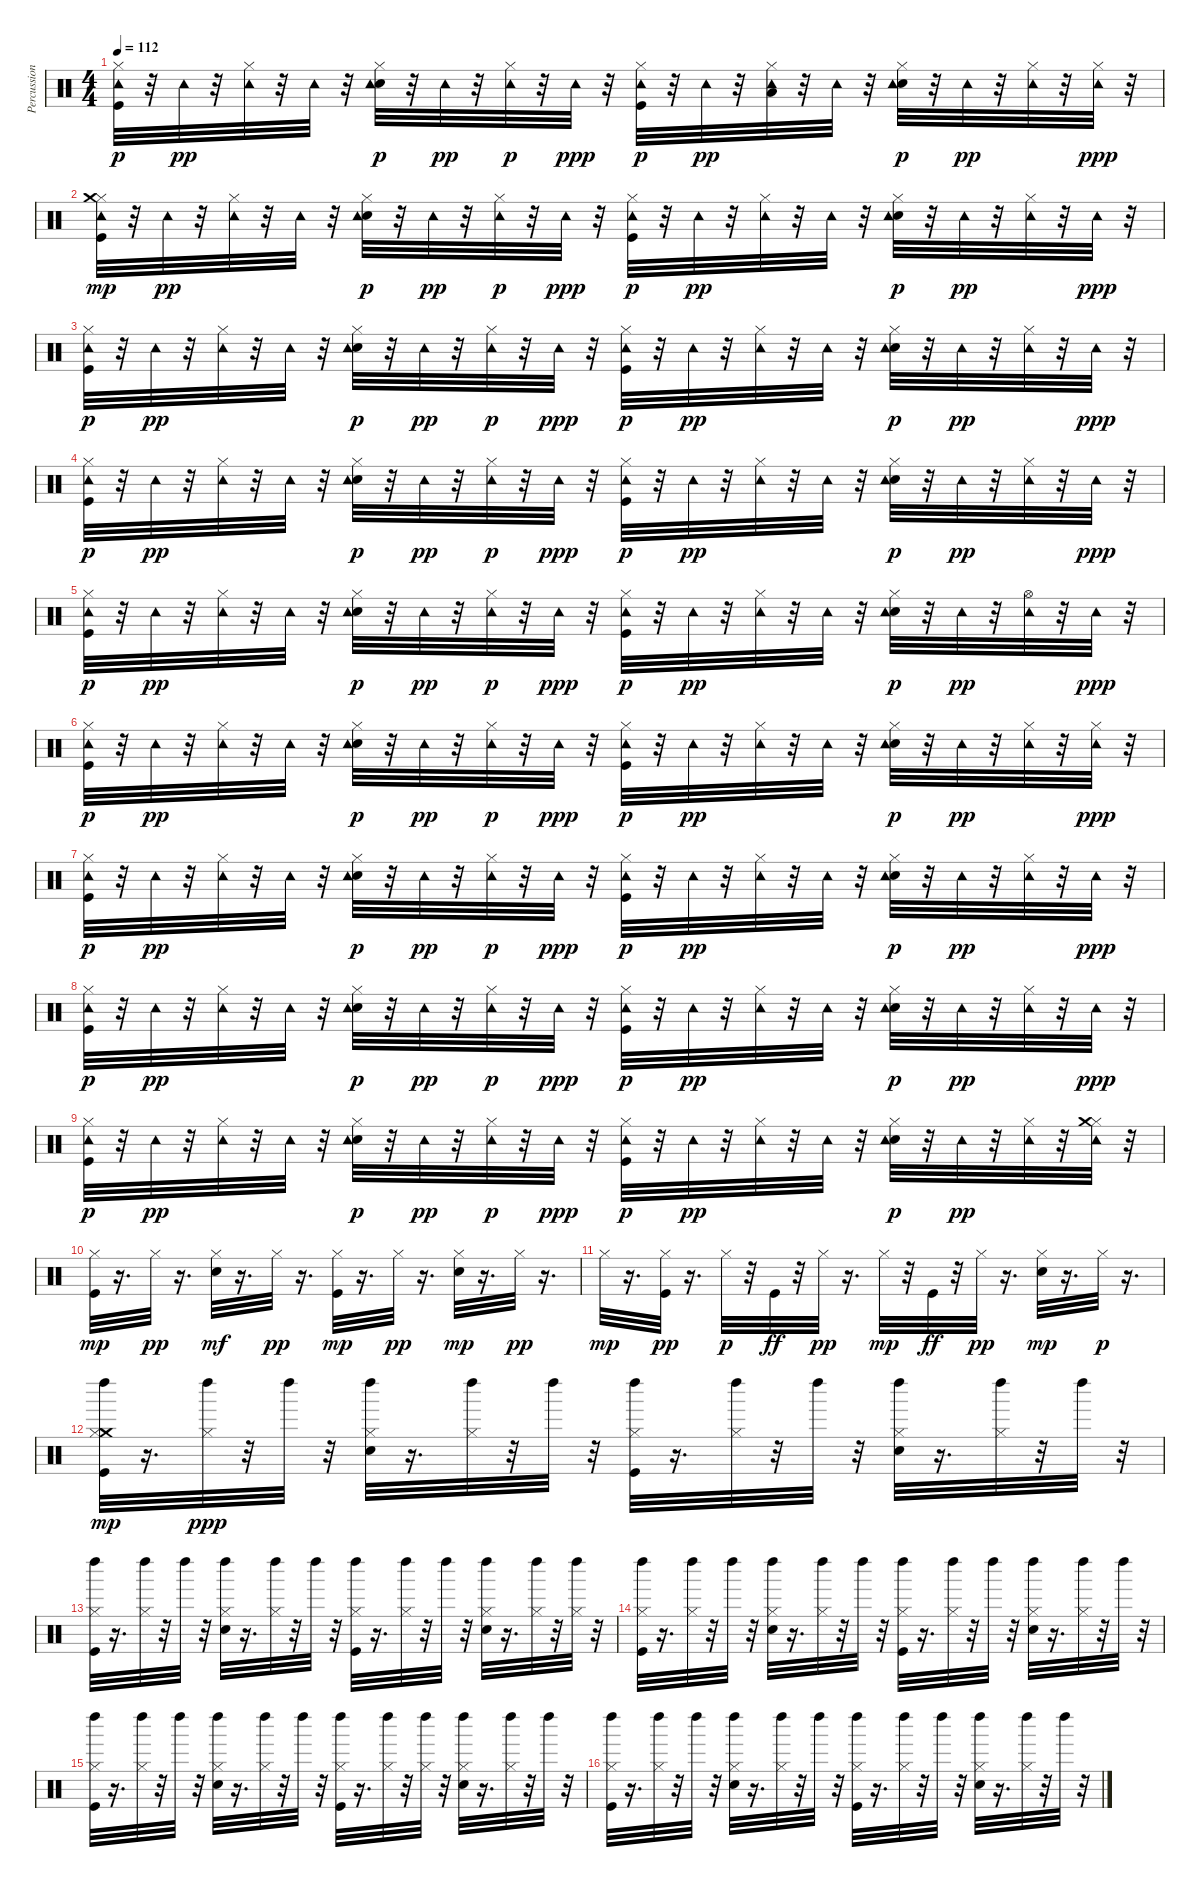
\track ("Percussioni" "Percussion") {instrument percussion}
\staff {score}
\articulation defaults
\ts (4 4)
\tempo 112
\clef neutral
\ks c
("Kick (hit)" "Hi-Hat (closed)" "Tambourine (hit)").32{dy p} r.32 "Tambourine (hit)".32{dy pp} r.32 ("Hi-Hat (closed)" "Tambourine (hit)").32 r.32 "Tambourine (hit)".32 r.32 ("Electric Snare (hit)" "Hi-Hat (closed)" "Tambourine (hit)").32{dy p} r.32 "Tambourine (hit)".32{dy pp} r.32 ("Hi-Hat (closed)" "Tambourine (hit)").32{dy p} r.32 "Tambourine (hit)".32{dy ppp} r.32 ("Kick (hit)" "Hi-Hat (closed)" "Tambourine (hit)").32{dy p} r.32 "Tambourine (hit)".32{dy pp} r.32 ("Hi-Hat (closed)" "Low Tom (hit)" "Tambourine (hit)").32 r.32 "Tambourine (hit)".32 r.32 ("Electric Snare (hit)" "Hi-Hat (closed)" "Tambourine (hit)").32{dy p} r.32 "Tambourine (hit)".32{dy pp} r.32 ("Hi-Hat (closed)" "Tambourine (hit)").32 r.32 ("Hi-Hat (closed)" "Tambourine (hit)").32{dy ppp} r.32 |
("Kick (hit)" "Hi-Hat (closed)" "Tambourine (hit)" "Crash medium (hit)").32{dy mp} r.32 "Tambourine (hit)".32{dy pp} r.32 ("Hi-Hat (closed)" "Tambourine (hit)").32 r.32 "Tambourine (hit)".32 r.32 ("Electric Snare (hit)" "Hi-Hat (closed)" "Tambourine (hit)").32{dy p} r.32 "Tambourine (hit)".32{dy pp} r.32 ("Hi-Hat (closed)" "Tambourine (hit)").32{dy p} r.32 "Tambourine (hit)".32{dy ppp} r.32 ("Kick (hit)" "Hi-Hat (closed)" "Tambourine (hit)").32{dy p} r.32 "Tambourine (hit)".32{dy pp} r.32 ("Hi-Hat (closed)" "Tambourine (hit)").32 r.32 "Tambourine (hit)".32 r.32 ("Electric Snare (hit)" "Hi-Hat (closed)" "Tambourine (hit)").32{dy p} r.32 "Tambourine (hit)".32{dy pp} r.32 ("Hi-Hat (closed)" "Tambourine (hit)").32 r.32 "Tambourine (hit)".32{dy ppp} r.32 |
("Kick (hit)" "Hi-Hat (closed)" "Tambourine (hit)").32{dy p} r.32 "Tambourine (hit)".32{dy pp} r.32 ("Hi-Hat (closed)" "Tambourine (hit)").32 r.32 "Tambourine (hit)".32 r.32 ("Electric Snare (hit)" "Hi-Hat (closed)" "Tambourine (hit)").32{dy p} r.32 "Tambourine (hit)".32{dy pp} r.32 ("Hi-Hat (closed)" "Tambourine (hit)").32{dy p} r.32 "Tambourine (hit)".32{dy ppp} r.32 ("Kick (hit)" "Hi-Hat (closed)" "Tambourine (hit)").32{dy p} r.32 "Tambourine (hit)".32{dy pp} r.32 ("Hi-Hat (closed)" "Tambourine (hit)").32 r.32 "Tambourine (hit)".32 r.32 ("Electric Snare (hit)" "Hi-Hat (closed)" "Tambourine (hit)").32{dy p} r.32 "Tambourine (hit)".32{dy pp} r.32 ("Hi-Hat (closed)" "Tambourine (hit)").32 r.32 "Tambourine (hit)".32{dy ppp} r.32 |
("Kick (hit)" "Hi-Hat (closed)" "Tambourine (hit)").32{dy p} r.32 "Tambourine (hit)".32{dy pp} r.32 ("Hi-Hat (closed)" "Tambourine (hit)").32 r.32 "Tambourine (hit)".32 r.32 ("Electric Snare (hit)" "Hi-Hat (closed)" "Tambourine (hit)").32{dy p} r.32 "Tambourine (hit)".32{dy pp} r.32 ("Hi-Hat (closed)" "Tambourine (hit)").32{dy p} r.32 "Tambourine (hit)".32{dy ppp} r.32 ("Kick (hit)" "Hi-Hat (closed)" "Tambourine (hit)").32{dy p} r.32 "Tambourine (hit)".32{dy pp} r.32 ("Hi-Hat (closed)" "Tambourine (hit)").32 r.32 "Tambourine (hit)".32 r.32 ("Electric Snare (hit)" "Hi-Hat (closed)" "Tambourine (hit)").32{dy p} r.32 "Tambourine (hit)".32{dy pp} r.32 ("Hi-Hat (closed)" "Tambourine (hit)").32 r.32 "Tambourine (hit)".32{dy ppp} r.32 |
("Kick (hit)" "Hi-Hat (closed)" "Tambourine (hit)").32{dy p} r.32 "Tambourine (hit)".32{dy pp} r.32 ("Hi-Hat (closed)" "Tambourine (hit)").32 r.32 "Tambourine (hit)".32 r.32 ("Electric Snare (hit)" "Hi-Hat (closed)" "Tambourine (hit)").32{dy p} r.32 "Tambourine (hit)".32{dy pp} r.32 ("Hi-Hat (closed)" "Tambourine (hit)").32{dy p} r.32 "Tambourine (hit)".32{dy ppp} r.32 ("Kick (hit)" "Hi-Hat (closed)" "Tambourine (hit)").32{dy p} r.32 "Tambourine (hit)".32{dy pp} r.32 ("Hi-Hat (closed)" "Tambourine (hit)").32 r.32 "Tambourine (hit)".32 r.32 ("Electric Snare (hit)" "Hi-Hat (closed)" "Tambourine (hit)").32{dy p} r.32 "Tambourine (hit)".32{dy pp} r.32 ("Hi-Hat (open)" "Tambourine (hit)").32 r.32 "Tambourine (hit)".32{dy ppp} r.32 |
("Kick (hit)" "Hi-Hat (closed)" "Tambourine (hit)").32{dy p} r.32 "Tambourine (hit)".32{dy pp} r.32 ("Hi-Hat (closed)" "Tambourine (hit)").32 r.32 "Tambourine (hit)".32 r.32 ("Electric Snare (hit)" "Hi-Hat (closed)" "Tambourine (hit)").32{dy p} r.32 "Tambourine (hit)".32{dy pp} r.32 ("Hi-Hat (closed)" "Tambourine (hit)").32{dy p} r.32 "Tambourine (hit)".32{dy ppp} r.32 ("Kick (hit)" "Hi-Hat (closed)" "Tambourine (hit)").32{dy p} r.32 "Tambourine (hit)".32{dy pp} r.32 ("Hi-Hat (closed)" "Tambourine (hit)").32 r.32 "Tambourine (hit)".32 r.32 ("Electric Snare (hit)" "Hi-Hat (closed)" "Tambourine (hit)").32{dy p} r.32 "Tambourine (hit)".32{dy pp} r.32 ("Hi-Hat (closed)" "Tambourine (hit)").32 r.32 ("Hi-Hat (closed)" "Tambourine (hit)").32{dy ppp} r.32 |
("Kick (hit)" "Hi-Hat (closed)" "Tambourine (hit)").32{dy p} r.32 "Tambourine (hit)".32{dy pp} r.32 ("Hi-Hat (closed)" "Tambourine (hit)").32 r.32 "Tambourine (hit)".32 r.32 ("Electric Snare (hit)" "Hi-Hat (closed)" "Tambourine (hit)").32{dy p} r.32 "Tambourine (hit)".32{dy pp} r.32 ("Hi-Hat (closed)" "Tambourine (hit)").32{dy p} r.32 "Tambourine (hit)".32{dy ppp} r.32 ("Kick (hit)" "Hi-Hat (closed)" "Tambourine (hit)").32{dy p} r.32 "Tambourine (hit)".32{dy pp} r.32 ("Hi-Hat (closed)" "Tambourine (hit)").32 r.32 "Tambourine (hit)".32 r.32 ("Electric Snare (hit)" "Hi-Hat (closed)" "Tambourine (hit)").32{dy p} r.32 "Tambourine (hit)".32{dy pp} r.32 ("Hi-Hat (closed)" "Tambourine (hit)").32 r.32 "Tambourine (hit)".32{dy ppp} r.32 |
("Kick (hit)" "Hi-Hat (closed)" "Tambourine (hit)").32{dy p} r.32 "Tambourine (hit)".32{dy pp} r.32 ("Hi-Hat (closed)" "Tambourine (hit)").32 r.32 "Tambourine (hit)".32 r.32 ("Electric Snare (hit)" "Hi-Hat (closed)" "Tambourine (hit)").32{dy p} r.32 "Tambourine (hit)".32{dy pp} r.32 ("Hi-Hat (closed)" "Tambourine (hit)").32{dy p} r.32 "Tambourine (hit)".32{dy ppp} r.32 ("Kick (hit)" "Hi-Hat (closed)" "Tambourine (hit)").32{dy p} r.32 "Tambourine (hit)".32{dy pp} r.32 ("Hi-Hat (closed)" "Tambourine (hit)").32 r.32 "Tambourine (hit)".32 r.32 ("Electric Snare (hit)" "Hi-Hat (closed)" "Tambourine (hit)").32{dy p} r.32 "Tambourine (hit)".32{dy pp} r.32 ("Hi-Hat (closed)" "Tambourine (hit)").32 r.32 "Tambourine (hit)".32{dy ppp} r.32 |
("Kick (hit)" "Hi-Hat (closed)" "Tambourine (hit)").32{dy p} r.32 "Tambourine (hit)".32{dy pp} r.32 ("Hi-Hat (closed)" "Tambourine (hit)").32 r.32 "Tambourine (hit)".32 r.32 ("Electric Snare (hit)" "Hi-Hat (closed)" "Tambourine (hit)").32{dy p} r.32 "Tambourine (hit)".32{dy pp} r.32 ("Hi-Hat (closed)" "Tambourine (hit)").32{dy p} r.32 "Tambourine (hit)".32{dy ppp} r.32 ("Kick (hit)" "Hi-Hat (closed)" "Tambourine (hit)").32{dy p} r.32 "Tambourine (hit)".32{dy pp} r.32 ("Hi-Hat (closed)" "Tambourine (hit)").32 r.32 "Tambourine (hit)".32 r.32 ("Electric Snare (hit)" "Hi-Hat (closed)" "Tambourine (hit)").32{dy p} r.32 "Tambourine (hit)".32{dy pp} r.32 ("Hi-Hat (closed)" "Tambourine (hit)").32 r.32 ("Hi-Hat (closed)" "Tambourine (hit)" "Crash medium (hit)").32 r.32 |
("Kick (hit)" "Hi-Hat (closed)").32{dy mp} r.16{d} "Hi-Hat (closed)".32{dy pp} r.16{d} ("Electric Snare (hit)" "Hi-Hat (closed)").32{dy mf} r.16{d} "Hi-Hat (closed)".32{dy pp} r.16{d} ("Kick (hit)" "Hi-Hat (closed)").32{dy mp} r.16{d} "Hi-Hat (closed)".32{dy pp} r.16{d} ("Electric Snare (hit)" "Hi-Hat (closed)").32{dy mp} r.16{d} "Hi-Hat (closed)".32{dy pp} r.16{d} |
"Hi-Hat (closed)".32{dy mp} r.16{d} ("Kick (hit)" "Hi-Hat (closed)").32{dy pp} r.16{d} "Hi-Hat (closed)".32{dy p} r.32 "Kick (hit)".32{dy ff} r.32 "Hi-Hat (closed)".32{dy pp} r.16{d} "Hi-Hat (closed)".32{dy mp} r.32 "Kick (hit)".32{dy ff} r.32 "Hi-Hat (closed)".32{dy pp} r.16{d} ("Electric Snare (hit)" "Hi-Hat (closed)").32{dy mp} r.16{d} "Hi-Hat (closed)".32{dy p} r.16{d} |
("Kick (hit)" "Crash medium (hit)" "Left Maraca (hit)" "Hi-Hat (closed)").32{dy mp} r.16{d} ("Hi-Hat (closed)" "Left Maraca (hit)").32{dy ppp} r.32 "Left Maraca (hit)".32 r.32 ("Electric Snare (hit)" "Hi-Hat (closed)" "Left Maraca (hit)").32 r.16{d} ("Hi-Hat (closed)" "Left Maraca (hit)").32 r.32 "Left Maraca (hit)".32 r.32 ("Kick (hit)" "Hi-Hat (closed)" "Left Maraca (hit)").32 r.16{d} ("Hi-Hat (closed)" "Left Maraca (hit)").32 r.32 "Left Maraca (hit)".32 r.32 ("Electric Snare (hit)" "Hi-Hat (closed)" "Left Maraca (hit)").32 r.16{d} ("Hi-Hat (closed)" "Left Maraca (hit)").32 r.32 "Left Maraca (hit)".32 r.32 |
("Kick (hit)" "Hi-Hat (closed)" "Left Maraca (hit)").32 r.16{d} ("Hi-Hat (closed)" "Left Maraca (hit)").32 r.32 "Left Maraca (hit)".32 r.32 ("Electric Snare (hit)" "Hi-Hat (closed)" "Left Maraca (hit)").32 r.16{d} ("Hi-Hat (closed)" "Left Maraca (hit)").32 r.32 "Left Maraca (hit)".32 r.32 ("Kick (hit)" "Hi-Hat (closed)" "Left Maraca (hit)").32 r.16{d} ("Hi-Hat (closed)" "Left Maraca (hit)").32 r.32 "Left Maraca (hit)".32 r.32 ("Electric Snare (hit)" "Hi-Hat (closed)" "Left Maraca (hit)").32 r.16{d} ("Hi-Hat (closed)" "Left Maraca (hit)").32 r.32 ("Hi-Hat (closed)" "Left Maraca (hit)").32 r.32 |
("Kick (hit)" "Hi-Hat (closed)" "Left Maraca (hit)").32 r.16{d} ("Hi-Hat (closed)" "Left Maraca (hit)").32 r.32 "Left Maraca (hit)".32 r.32 ("Electric Snare (hit)" "Hi-Hat (closed)" "Left Maraca (hit)").32 r.16{d} ("Hi-Hat (closed)" "Left Maraca (hit)").32 r.32 "Left Maraca (hit)".32 r.32 ("Kick (hit)" "Hi-Hat (closed)" "Left Maraca (hit)").32 r.16{d} ("Hi-Hat (closed)" "Left Maraca (hit)").32 r.32 "Left Maraca (hit)".32 r.32 ("Electric Snare (hit)" "Hi-Hat (closed)" "Left Maraca (hit)").32 r.16{d} ("Hi-Hat (closed)" "Left Maraca (hit)").32 r.32 "Left Maraca (hit)".32 r.32 |
("Kick (hit)" "Hi-Hat (closed)" "Left Maraca (hit)").32 r.16{d} ("Hi-Hat (closed)" "Left Maraca (hit)").32 r.32 "Left Maraca (hit)".32 r.32 ("Electric Snare (hit)" "Hi-Hat (closed)" "Left Maraca (hit)").32 r.16{d} ("Hi-Hat (closed)" "Left Maraca (hit)").32 r.32 "Left Maraca (hit)".32 r.32 ("Kick (hit)" "Hi-Hat (closed)" "Left Maraca (hit)").32 r.16{d} ("Hi-Hat (closed)" "Left Maraca (hit)").32 r.32 ("Hi-Hat (closed)" "Left Maraca (hit)").32 r.32 ("Electric Snare (hit)" "Hi-Hat (closed)" "Left Maraca (hit)").32 r.16{d} ("Hi-Hat (closed)" "Left Maraca (hit)").32 r.32 "Left Maraca (hit)".32 r.32 |
("Kick (hit)" "Hi-Hat (closed)" "Left Maraca (hit)").32 r.16{d} ("Hi-Hat (closed)" "Left Maraca (hit)").32 r.32 "Left Maraca (hit)".32 r.32 ("Electric Snare (hit)" "Hi-Hat (closed)" "Left Maraca (hit)").32 r.16{d} ("Hi-Hat (closed)" "Left Maraca (hit)").32 r.32 "Left Maraca (hit)".32 r.32 ("Kick (hit)" "Hi-Hat (closed)" "Left Maraca (hit)").32 r.16{d} ("Hi-Hat (closed)" "Left Maraca (hit)").32 r.32 "Left Maraca (hit)".32 r.32 ("Electric Snare (hit)" "Hi-Hat (closed)" "Left Maraca (hit)").32 r.16{d} ("Hi-Hat (closed)" "Left Maraca (hit)").32 r.32 "Left Maraca (hit)".32 r.32
